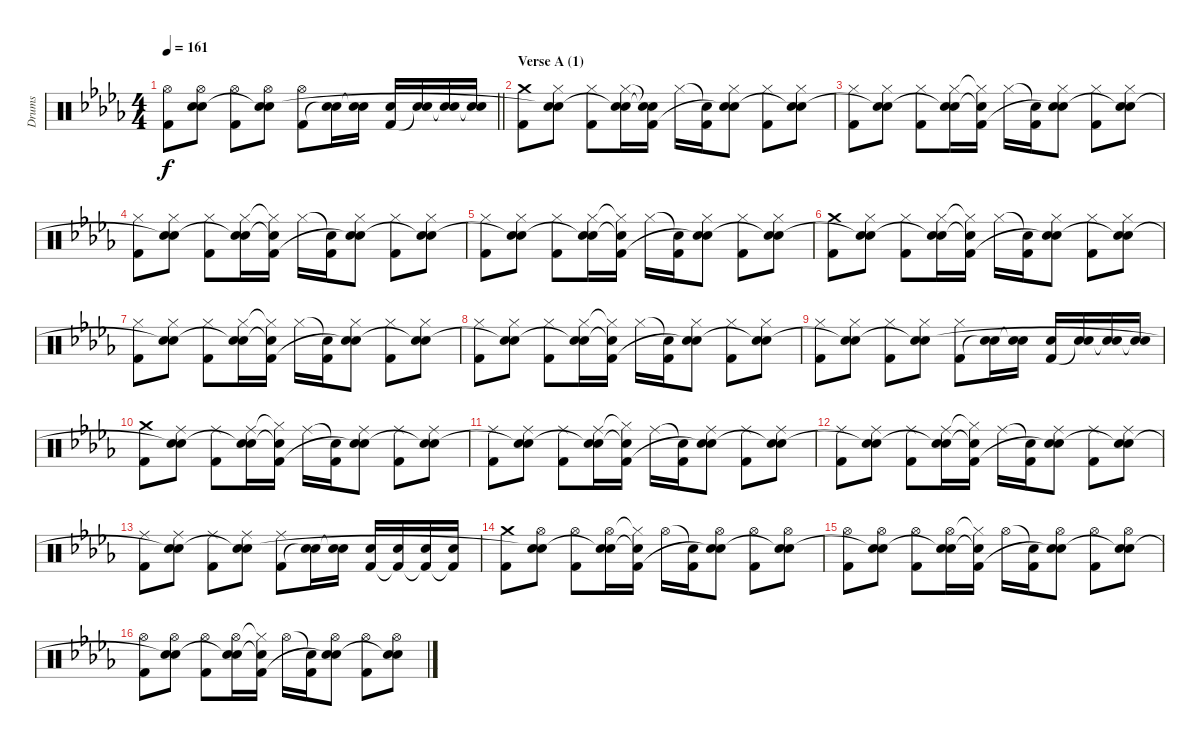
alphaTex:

\track ("Drums" "Drums") {instrument percussion}
\staff {score}
\articulation defaults
\ts (4 4)
\tempo 161
\clef neutral
\barLineRight lightlight
\ks bbminor
("Hi-Hat (open)" "Kick (hit) 2").8{dy f} ("Hi-Hat (open)" "Electric Snare (hit)" "Snare (hit)"{t}).8 ("Hi-Hat (open)" "Kick (hit) 2").8 ("Hi-Hat (open)" "Electric Snare (hit)" "Snare (hit)"{t}).8 ("Hi-Hat (open)" "Kick (hit) 2").8 ("Electric Snare (hit)" "Snare (hit)"{t}).16 ("Electric Snare (hit)" "Snare (hit)"{t}).16 ("Electric Snare (hit)" "Kick (hit) 2").16 ("Electric Snare (hit)" "Snare (hit)"{t}).16 ("Electric Snare (hit)" "Snare (hit)"{t}).16 ("Electric Snare (hit)" "Snare (hit)"{t}).16 |
\section ("" "Verse A (1)")
("Crash medium (hit)" "Kick (hit) 2").8 ("Hi-Hat (closed)" "Electric Snare (hit)" "Snare (hit)"{t}).8 ("Hi-Hat (closed)" "Kick (hit) 2").8 ("Hi-Hat (closed)" "Electric Snare (hit)" "Snare (hit)"{t}).16 ("Snare (hit)"{t} "Snare (hit)"{t} "Kick (hit) 2").16 "Hi-Hat (closed)".16 ("Snare (hit)"{t} "Kick (hit) 2").16 ("Hi-Hat (closed)" "Electric Snare (hit)" "Snare (hit)"{t}).8 ("Hi-Hat (closed)" "Kick (hit) 2").8 ("Hi-Hat (closed)" "Electric Snare (hit)" "Snare (hit)"{t}).8 |
("Hi-Hat (closed)" "Kick (hit) 2").8 ("Hi-Hat (closed)" "Electric Snare (hit)" "Snare (hit)"{t}).8 ("Hi-Hat (closed)" "Kick (hit) 2").8 ("Hi-Hat (closed)" "Electric Snare (hit)" "Snare (hit)"{t}).16 ("Hi-Hat (closed)"{t} "Snare (hit)"{t} "Kick (hit) 2").16 "Hi-Hat (closed)".16 ("Snare (hit)"{t} "Kick (hit) 2").16 ("Hi-Hat (closed)" "Electric Snare (hit)" "Snare (hit)"{t}).8 ("Hi-Hat (closed)" "Kick (hit) 2").8 ("Hi-Hat (closed)" "Electric Snare (hit)" "Snare (hit)"{t}).8 |
("Hi-Hat (closed)" "Kick (hit) 2").8 ("Hi-Hat (closed)" "Electric Snare (hit)" "Snare (hit)"{t}).8 ("Hi-Hat (closed)" "Kick (hit) 2").8 ("Hi-Hat (closed)" "Electric Snare (hit)" "Snare (hit)"{t}).16 ("Hi-Hat (closed)"{t} "Snare (hit)"{t} "Kick (hit) 2").16 "Hi-Hat (closed)".16 ("Snare (hit)"{t} "Kick (hit) 2").16 ("Hi-Hat (closed)" "Electric Snare (hit)" "Snare (hit)"{t}).8 ("Hi-Hat (closed)" "Kick (hit) 2").8 ("Hi-Hat (closed)" "Electric Snare (hit)" "Snare (hit)"{t}).8 |
("Hi-Hat (closed)" "Kick (hit) 2").8 ("Hi-Hat (closed)" "Electric Snare (hit)" "Snare (hit)"{t}).8 ("Hi-Hat (closed)" "Kick (hit) 2").8 ("Hi-Hat (closed)" "Electric Snare (hit)" "Snare (hit)"{t}).16 ("Hi-Hat (closed)"{t} "Snare (hit)"{t} "Kick (hit) 2").16 "Hi-Hat (closed)".16 ("Snare (hit)"{t} "Kick (hit) 2").16 ("Hi-Hat (closed)" "Electric Snare (hit)" "Snare (hit)"{t}).8 ("Hi-Hat (closed)" "Kick (hit) 2").8 ("Hi-Hat (closed)" "Electric Snare (hit)" "Snare (hit)"{t}).8 |
("Crash medium (hit)" "Kick (hit) 2").8 ("Hi-Hat (closed)" "Electric Snare (hit)" "Snare (hit)"{t}).8 ("Hi-Hat (closed)" "Kick (hit) 2").8 ("Hi-Hat (closed)" "Electric Snare (hit)" "Snare (hit)"{t}).16 ("Hi-Hat (closed)"{t} "Snare (hit)"{t} "Kick (hit) 2").16 "Hi-Hat (closed)".16 ("Snare (hit)"{t} "Kick (hit) 2").16 ("Hi-Hat (closed)" "Electric Snare (hit)" "Snare (hit)"{t}).8 ("Hi-Hat (closed)" "Kick (hit) 2").8 ("Hi-Hat (closed)" "Electric Snare (hit)" "Snare (hit)"{t}).8 |
("Hi-Hat (closed)" "Kick (hit) 2").8 ("Hi-Hat (closed)" "Electric Snare (hit)" "Snare (hit)"{t}).8 ("Hi-Hat (closed)" "Kick (hit) 2").8 ("Hi-Hat (closed)" "Electric Snare (hit)" "Snare (hit)"{t}).16 ("Hi-Hat (closed)"{t} "Snare (hit)"{t} "Kick (hit) 2").16 "Hi-Hat (closed)".16 ("Snare (hit)"{t} "Kick (hit) 2").16 ("Hi-Hat (closed)" "Electric Snare (hit)" "Snare (hit)"{t}).8 ("Hi-Hat (closed)" "Kick (hit) 2").8 ("Hi-Hat (closed)" "Electric Snare (hit)" "Snare (hit)"{t}).8 |
("Hi-Hat (closed)" "Kick (hit) 2").8 ("Hi-Hat (closed)" "Electric Snare (hit)" "Snare (hit)"{t}).8 ("Hi-Hat (closed)" "Kick (hit) 2").8 ("Hi-Hat (closed)" "Electric Snare (hit)" "Snare (hit)"{t}).16 ("Hi-Hat (closed)"{t} "Snare (hit)"{t} "Kick (hit) 2").16 "Hi-Hat (closed)".16 ("Snare (hit)"{t} "Kick (hit) 2").16 ("Hi-Hat (closed)" "Electric Snare (hit)" "Snare (hit)"{t}).8 ("Hi-Hat (closed)" "Kick (hit) 2").8 ("Hi-Hat (closed)" "Electric Snare (hit)" "Snare (hit)"{t}).8 |
("Hi-Hat (closed)" "Kick (hit) 2").8 ("Hi-Hat (closed)" "Electric Snare (hit)" "Snare (hit)"{t}).8 ("Hi-Hat (closed)" "Kick (hit) 2").8 ("Hi-Hat (closed)" "Electric Snare (hit)" "Snare (hit)"{t}).8 ("Hi-Hat (closed)" "Kick (hit) 2").8 ("Electric Snare (hit)" "Snare (hit)"{t}).16 ("Electric Snare (hit)" "Snare (hit)"{t}).16 ("Electric Snare (hit)" "Kick (hit) 2").16 ("Electric Snare (hit)" "Snare (hit)"{t}).16 ("Electric Snare (hit)" "Snare (hit)"{t}).16 ("Electric Snare (hit)" "Snare (hit)"{t}).16 |
("Crash medium (hit)" "Kick (hit) 2").8 ("Ride (middle)" "Electric Snare (hit)" "Snare (hit)"{t}).8 ("Ride (middle)" "Kick (hit) 2").8 ("Ride (middle)" "Electric Snare (hit)" "Snare (hit)"{t}).16 ("Hi-Hat (closed)"{t} "Snare (hit)"{t} "Kick (hit) 2").16 "Ride (middle)".16 ("Snare (hit)"{t} "Kick (hit) 2").16 ("Ride (middle)" "Electric Snare (hit)" "Snare (hit)"{t}).8 ("Ride (middle)" "Kick (hit) 2").8 ("Ride (middle)" "Electric Snare (hit)" "Snare (hit)"{t}).8 |
("Ride (middle)" "Kick (hit) 2").8 ("Ride (middle)" "Electric Snare (hit)" "Snare (hit)"{t}).8 ("Ride (middle)" "Kick (hit) 2").8 ("Ride (middle)" "Electric Snare (hit)" "Snare (hit)"{t}).16 ("Hi-Hat (closed)"{t} "Snare (hit)"{t} "Kick (hit) 2").16 "Ride (middle)".16 ("Snare (hit)"{t} "Kick (hit) 2").16 ("Ride (middle)" "Electric Snare (hit)" "Snare (hit)"{t}).8 ("Ride (middle)" "Kick (hit) 2").8 ("Ride (middle)" "Electric Snare (hit)" "Snare (hit)"{t}).8 |
("Ride (middle)" "Kick (hit) 2").8 ("Ride (middle)" "Electric Snare (hit)" "Snare (hit)"{t}).8 ("Ride (middle)" "Kick (hit) 2").8 ("Ride (middle)" "Electric Snare (hit)" "Snare (hit)"{t}).16 ("Hi-Hat (closed)"{t} "Snare (hit)"{t} "Kick (hit) 2").16 "Ride (middle)".16 ("Snare (hit)"{t} "Kick (hit) 2").16 ("Ride (middle)" "Electric Snare (hit)" "Snare (hit)"{t}).8 ("Ride (middle)" "Kick (hit) 2").8 ("Ride (middle)" "Electric Snare (hit)" "Snare (hit)"{t}).8 |
("Ride (middle)" "Kick (hit) 2").8 ("Ride (middle)" "Electric Snare (hit)" "Snare (hit)"{t}).8 ("Ride (middle)" "Kick (hit) 2").8 ("Ride (middle)" "Electric Snare (hit)" "Snare (hit)"{t}).8 ("Ride (middle)" "Kick (hit) 2").8 ("Electric Snare (hit)" "Snare (hit)"{t}).16 ("Electric Snare (hit)" "Snare (hit)"{t}).16 ("Electric Snare (hit)" "Kick (hit) 2").16 ("Electric Snare (hit)" "Kick (hit) 2"{t}).16 ("Electric Snare (hit)" "Kick (hit) 2"{t}).16 ("Electric Snare (hit)" "Kick (hit) 2"{t}).16 |
("Crash medium (hit)" "Kick (hit) 2").8 ("Hi-Hat (open)" "Electric Snare (hit)" "Snare (hit)"{t}).8 ("Hi-Hat (open)" "Kick (hit) 2").8 ("Hi-Hat (open)" "Electric Snare (hit)" "Snare (hit)"{t}).16 ("Hi-Hat (closed)"{t} "Snare (hit)"{t} "Kick (hit) 2").16 "Hi-Hat (open)".16 ("Snare (hit)"{t} "Kick (hit) 2").16 ("Hi-Hat (open)" "Electric Snare (hit)" "Snare (hit)"{t}).8 ("Hi-Hat (open)" "Kick (hit) 2").8 ("Hi-Hat (open)" "Electric Snare (hit)" "Snare (hit)"{t}).8 |
("Hi-Hat (open)" "Kick (hit) 2").8 ("Hi-Hat (open)" "Electric Snare (hit)" "Snare (hit)"{t}).8 ("Hi-Hat (open)" "Kick (hit) 2").8 ("Hi-Hat (open)" "Electric Snare (hit)" "Snare (hit)"{t}).16 ("Hi-Hat (closed)"{t} "Snare (hit)"{t} "Kick (hit) 2").16 "Hi-Hat (open)".16 ("Snare (hit)"{t} "Kick (hit) 2").16 ("Hi-Hat (open)" "Electric Snare (hit)" "Snare (hit)"{t}).8 ("Hi-Hat (open)" "Kick (hit) 2").8 ("Hi-Hat (open)" "Electric Snare (hit)" "Snare (hit)"{t}).8 |
("Hi-Hat (open)" "Kick (hit) 2").8 ("Hi-Hat (open)" "Electric Snare (hit)" "Snare (hit)"{t}).8 ("Hi-Hat (open)" "Kick (hit) 2").8 ("Hi-Hat (open)" "Electric Snare (hit)" "Snare (hit)"{t}).16 ("Hi-Hat (closed)"{t} "Snare (hit)"{t} "Kick (hit) 2").16 "Hi-Hat (open)".16 ("Snare (hit)"{t} "Kick (hit) 2").16 ("Hi-Hat (open)" "Electric Snare (hit)" "Snare (hit)"{t}).8 ("Hi-Hat (open)" "Kick (hit) 2").8 ("Hi-Hat (open)" "Electric Snare (hit)" "Snare (hit)"{t}).8
